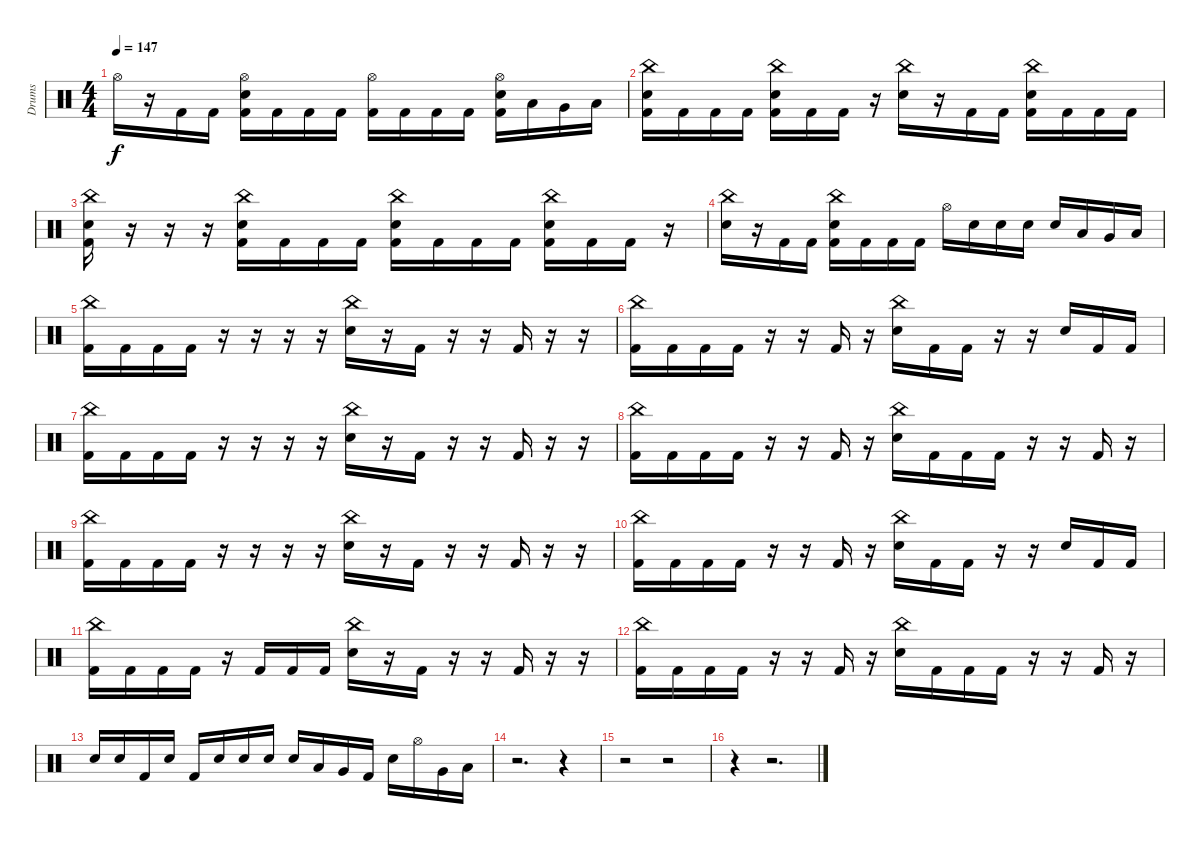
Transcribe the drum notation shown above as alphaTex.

\track ("Drums" "Drums") {instrument percussion}
\staff {score}
\articulation defaults
\ts (4 4)
\tempo 147
\clef neutral
\ks c "Hi-Hat (open)".16{dy f}
r.16 "Kick (hit) 2".16 "Kick (hit) 2".16 ("Hi-Hat (open)" "Electric Snare (hit)" "Kick (hit) 2").16 "Kick (hit) 2".16 "Kick (hit) 2".16 "Kick (hit) 2".16 ("Hi-Hat (open)" "Kick (hit) 2").16 "Kick (hit) 2".16 "Kick (hit) 2".16 "Kick (hit) 2".16 ("Hi-Hat (open)" "Electric Snare (hit)" "Kick (hit) 2").16 "Low Tom (hit)".16 "Very Low Tom (hit)".16 "Low Floor Tom (hit)".16 |
("China (hit)" "Electric Snare (hit)" "Kick (hit) 2").16 "Kick (hit) 2".16 "Kick (hit) 2".16 "Kick (hit) 2".16 ("China (hit)" "Electric Snare (hit)" "Kick (hit) 2").16 "Kick (hit) 2".16 "Kick (hit) 2".16 r.16 ("China (hit)" "Electric Snare (hit)").16 r.16 "Kick (hit) 2".16 "Kick (hit) 2".16 ("China (hit)" "Electric Snare (hit)" "Kick (hit) 2").16 "Kick (hit) 2".16 "Kick (hit) 2".16 "Kick (hit) 2".16 |
("China (hit)" "Electric Snare (hit)" "Kick (hit) 2").16 r.16 r.16 r.16 ("China (hit)" "Electric Snare (hit)" "Kick (hit) 2").16 "Kick (hit) 2".16 "Kick (hit) 2".16 "Kick (hit) 2".16 ("China (hit)" "Electric Snare (hit)" "Kick (hit) 2").16 "Kick (hit) 2".16 "Kick (hit) 2".16 "Kick (hit) 2".16 ("China (hit)" "Electric Snare (hit)" "Kick (hit) 2").16 "Kick (hit) 2".16 "Kick (hit) 2".16 r.16 |
("China (hit)" "Electric Snare (hit)").16 r.16 "Kick (hit) 2".16 "Kick (hit) 2".16 ("China (hit)" "Electric Snare (hit)" "Kick (hit) 2").16 "Kick (hit) 2".16 "Kick (hit) 2".16 "Kick (hit) 2".16 "Hi-Hat (open)".16 "Electric Snare (hit)".16 "Electric Snare (hit)".16 "Electric Snare (hit)".16 "Electric Snare (hit)".16 "Low Tom (hit)".16 "Very Low Tom (hit)".16 "Low Floor Tom (hit)".16 |
("China (hit)" "Kick (hit) 2").16 "Kick (hit) 2".16 "Kick (hit) 2".16 "Kick (hit) 2".16 r.16 r.16 r.16 r.16 ("China (hit)" "Electric Snare (hit)").16 r.16 "Kick (hit) 2".16 r.16 r.16 "Kick (hit) 2".16 r.16 r.16 |
("China (hit)" "Kick (hit) 2").16 "Kick (hit) 2".16 "Kick (hit) 2".16 "Kick (hit) 2".16 r.16 r.16 "Kick (hit) 2".16 r.16 ("China (hit)" "Electric Snare (hit)").16 "Kick (hit) 2".16 "Kick (hit) 2".16 r.16 r.16 "Electric Snare (hit)".16 "Kick (hit) 2".16 "Kick (hit) 2".16 |
("China (hit)" "Kick (hit) 2").16 "Kick (hit) 2".16 "Kick (hit) 2".16 "Kick (hit) 2".16 r.16 r.16 r.16 r.16 ("China (hit)" "Electric Snare (hit)").16 r.16 "Kick (hit) 2".16 r.16 r.16 "Kick (hit) 2".16 r.16 r.16 |
("China (hit)" "Kick (hit) 2").16 "Kick (hit) 2".16 "Kick (hit) 2".16 "Kick (hit) 2".16 r.16 r.16 "Kick (hit) 2".16 r.16 ("China (hit)" "Electric Snare (hit)").16 "Kick (hit) 2".16 "Kick (hit) 2".16 "Kick (hit) 2".16 r.16 r.16 "Kick (hit) 2".16 r.16 |
("China (hit)" "Kick (hit) 2").16 "Kick (hit) 2".16 "Kick (hit) 2".16 "Kick (hit) 2".16 r.16 r.16 r.16 r.16 ("China (hit)" "Electric Snare (hit)").16 r.16 "Kick (hit) 2".16 r.16 r.16 "Kick (hit) 2".16 r.16 r.16 |
("China (hit)" "Kick (hit) 2").16 "Kick (hit) 2".16 "Kick (hit) 2".16 "Kick (hit) 2".16 r.16 r.16 "Kick (hit) 2".16 r.16 ("China (hit)" "Electric Snare (hit)").16 "Kick (hit) 2".16 "Kick (hit) 2".16 r.16 r.16 "Electric Snare (hit)".16 "Kick (hit) 2".16 "Kick (hit) 2".16 |
("China (hit)" "Kick (hit) 2").16 "Kick (hit) 2".16 "Kick (hit) 2".16 "Kick (hit) 2".16 r.16 "Kick (hit) 2".16 "Kick (hit) 2".16 "Kick (hit) 2".16 ("China (hit)" "Electric Snare (hit)").16 r.16 "Kick (hit) 2".16 r.16 r.16 "Kick (hit) 2".16 r.16 r.16 |
("China (hit)" "Kick (hit) 2").16 "Kick (hit) 2".16 "Kick (hit) 2".16 "Kick (hit) 2".16 r.16 r.16 "Kick (hit) 2".16 r.16 ("China (hit)" "Electric Snare (hit)").16 "Kick (hit) 2".16 "Kick (hit) 2".16 "Kick (hit) 2".16 r.16 r.16 "Kick (hit) 2".16 r.16 |
"Electric Snare (hit)".16 "Electric Snare (hit)".16 "Kick (hit) 2".16 "Electric Snare (hit)".16 "Kick (hit) 2".16 "Electric Snare (hit)".16 "Electric Snare (hit)".16 "Electric Snare (hit)".16 "Electric Snare (hit)".16 "Low Tom (hit)".16 "Very Low Tom (hit)".16 "Kick (hit) 2".16 "Electric Snare (hit)".16 "Hi-Hat (open)".16 "Very Low Tom (hit)".16 "Low Floor Tom (hit)".16 |
r.2{d} r.4 |
r.2 r.2 |
r.4 r.2{d}
